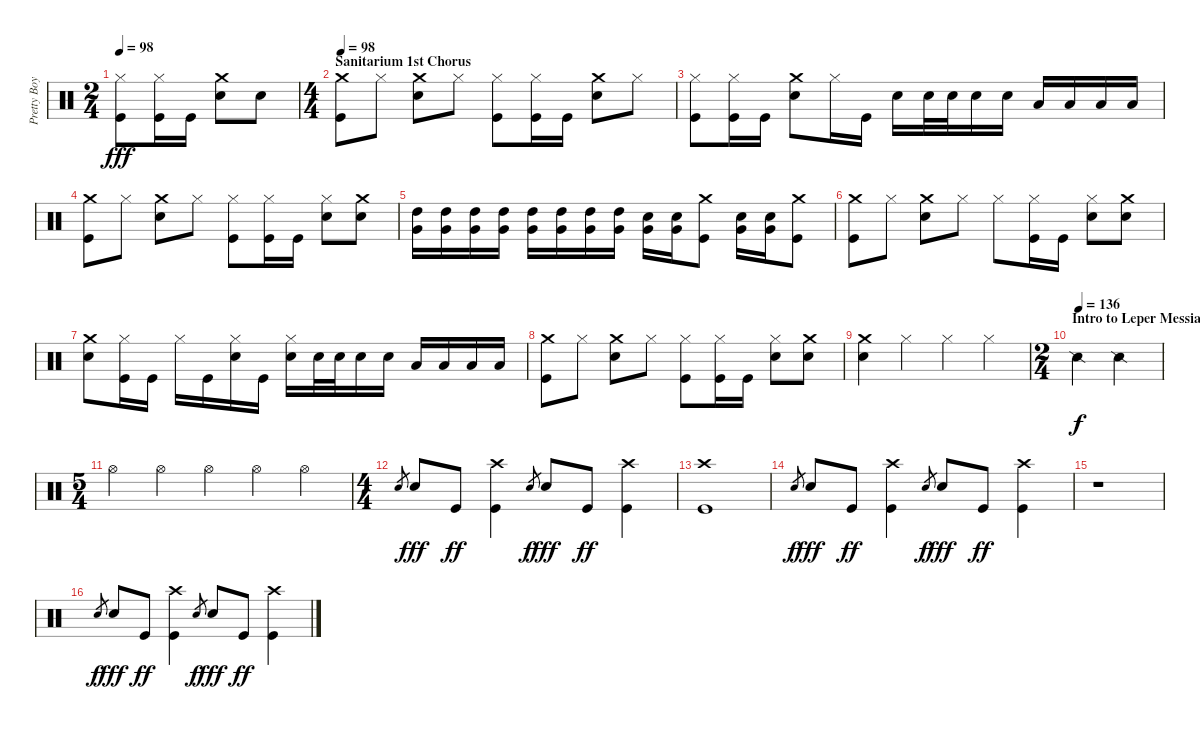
\track ("Pretty Boy Geoff (Lars Drums)" "Pretty Boy") {instrument percussion}
\staff {score}
\articulation defaults
\ts (2 4)
\tempo 98
\clef neutral
\ks c
("Hi-Hat (closed)" "Kick (hit)").8{dy fff} ("Hi-Hat (closed)" "Kick (hit)").16 "Kick (hit)".16 ("Crash medium (hit)" "Snare (hit) 2").8 "Snare (hit) 2".8 |
\ts (4 4)
\section ("" "Sanitarium 1st Chorus")
\tempo 98
("Crash medium (hit)" "Kick (hit)").8 "Hi-Hat (closed)".8 ("Crash medium (hit)" "Snare (hit) 2").8 "Hi-Hat (closed)".8 ("Kick (hit)" "Hi-Hat (closed)").8 ("Kick (hit)" "Hi-Hat (closed)").16 "Kick (hit)".16 ("Crash medium (hit)" "Snare (hit) 2").8 "Hi-Hat (closed)".8 |
("Hi-Hat (closed)" "Kick (hit)").8 ("Hi-Hat (closed)" "Kick (hit)").16 "Kick (hit)".16 ("Crash medium (hit)" "Snare (hit) 2").8 "Hi-Hat (closed)".16 "Kick (hit)".16 "Snare (hit) 2".16 "Snare (hit) 2".32 "Snare (hit) 2".32 "Snare (hit) 2".16 "Snare (hit) 2".16 "Low Tom (hit)".16 "Low Tom (hit)".16 "Low Tom (hit)".16 "Low Tom (hit)".16 |
("Crash medium (hit)" "Kick (hit)").8 "Hi-Hat (closed)".8 ("Crash medium (hit)" "Snare (hit) 2").8 "Hi-Hat (closed)".8 ("Hi-Hat (closed)" "Kick (hit)").8 ("Hi-Hat (closed)" "Kick (hit)").16 "Kick (hit)".16 ("Snare (hit) 2" "Hi-Hat (closed)").8 ("Crash medium (hit)" "Snare (hit) 2").8 |
("High Tom (hit)" "Very Low Tom (hit)").16 ("High Tom (hit)" "Very Low Tom (hit)").16 ("High Tom (hit)" "Very Low Tom (hit)").16 ("High Tom (hit)" "Very Low Tom (hit)").16 ("High Tom (hit)" "Very Low Tom (hit)").16 ("High Tom (hit)" "Very Low Tom (hit)").16 ("High Tom (hit)" "Very Low Tom (hit)").16 ("High Tom (hit)" "Very Low Tom (hit)").16 ("Snare (hit) 2" "Very Low Tom (hit)").16 ("Snare (hit) 2" "Very Low Tom (hit)").16 ("Kick (hit)" "Crash medium (hit)").8 ("Snare (hit) 2" "Very Low Tom (hit)").16 ("Snare (hit) 2" "Very Low Tom (hit)").16 ("Crash medium (hit)" "Kick (hit)").8 |
("Kick (hit)" "Crash medium (hit)").8 "Hi-Hat (closed)".8 ("Crash medium (hit)" "Snare (hit) 2").8 "Hi-Hat (closed)".8 "Hi-Hat (closed)".8 ("Hi-Hat (closed)" "Kick (hit)").16 "Kick (hit)".16 ("Snare (hit) 2" "Hi-Hat (closed)").8 ("Crash medium (hit)" "Snare (hit) 2").8 |
("Snare (hit) 2" "Crash medium (hit)").8 ("Hi-Hat (closed)" "Kick (hit)").16 "Kick (hit)".16 "Hi-Hat (closed)".16 "Kick (hit)".16 ("Snare (hit) 2" "Hi-Hat (closed)").16 "Kick (hit)".16 ("Snare (hit) 2" "Hi-Hat (closed)").16 "Snare (hit) 2".32 "Snare (hit) 2".32 "Snare (hit) 2".16 "Snare (hit) 2".16 "Low Tom (hit)".16 "Low Tom (hit)".16 "Low Tom (hit)".16 "Low Tom (hit)".16 |
("Crash medium (hit)" "Kick (hit)").8 "Hi-Hat (closed)".8 ("Crash medium (hit)" "Snare (hit) 2").8 "Hi-Hat (closed)".8 ("Kick (hit)" "Hi-Hat (closed)").8 ("Kick (hit)" "Hi-Hat (closed)").16 "Kick (hit)".16 ("Snare (hit) 2" "Hi-Hat (closed)").8 ("Crash medium (hit)" "Snare (hit) 2").8 |
("Crash medium (hit)" "Snare (hit) 2").4 "Hi-Hat (closed)".4 "Hi-Hat (closed)".4 "Hi-Hat (closed)".4 |
\ts (2 4)
\section ("" "Intro to Leper Messiah Tempo = 136 Bpm")
\tempo (136)
"Snare (side stick) 2".4{dy f} "Snare (side stick) 2".4 |
\ts (5 4)
"Hi-Hat (open)".4 "Hi-Hat (open)".4 "Hi-Hat (open)".4 "Hi-Hat (open)".4 "Hi-Hat (open)".4 |
\ts (4 4)
"Electric Snare (hit)".8{gr} "Electric Snare (hit)".8{dy fff} "Kick (hit)".8{dy ff} ("Crash high (hit)" "Kick (hit)").4 "Electric Snare (hit)".8{gr dy f} "Electric Snare (hit)".8{dy fff} "Kick (hit)".8{dy ff} ("Crash high (hit)" "Kick (hit)").4 |
("Crash high (hit)" "Kick (hit)").1 |
"Electric Snare (hit)".8{gr dy f} "Electric Snare (hit)".8{dy fff} "Kick (hit)".8{dy ff} ("Crash high (hit)" "Kick (hit)").4 "Electric Snare (hit)".8{gr dy f} "Electric Snare (hit)".8{dy fff} "Kick (hit)".8{dy ff} ("Crash high (hit)" "Kick (hit)").4 |
r.1 |
"Electric Snare (hit)".8{gr dy f} "Electric Snare (hit)".8{dy fff} "Kick (hit)".8{dy ff} ("Crash high (hit)" "Kick (hit)").4 "Electric Snare (hit)".8{gr dy f} "Electric Snare (hit)".8{dy fff} "Kick (hit)".8{dy ff} ("Crash high (hit)" "Kick (hit)").4
